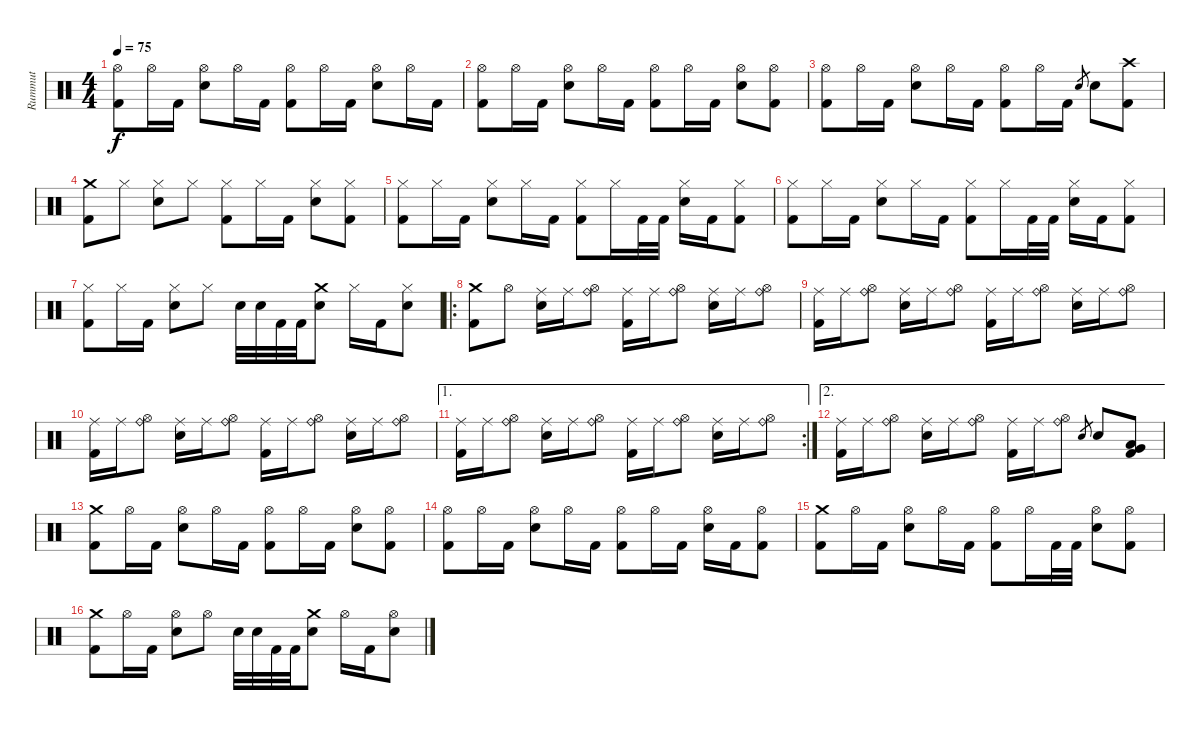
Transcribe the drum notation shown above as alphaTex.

\track ("Rummut" "Rummut") {instrument percussion}
\staff {score}
\articulation defaults
\ts (4 4)
\tempo 75
\clef neutral
\ks c
("Hi-Hat (open)" "Kick (hit) 2").8{dy f} "Hi-Hat (open)".16 "Kick (hit) 2".16 ("Hi-Hat (open)" "Snare (hit) 2").8 "Hi-Hat (open)".16 "Kick (hit) 2".16 ("Hi-Hat (open)" "Kick (hit) 2").8 "Hi-Hat (open)".16 "Kick (hit) 2".16 ("Hi-Hat (open)" "Snare (hit) 2").8 "Hi-Hat (open)".16 "Kick (hit) 2".16 |
("Hi-Hat (open)" "Kick (hit) 2").8 "Hi-Hat (open)".16 "Kick (hit) 2".16 ("Hi-Hat (open)" "Snare (hit) 2").8 "Hi-Hat (open)".16 "Kick (hit) 2".16 ("Hi-Hat (open)" "Kick (hit) 2").8 "Hi-Hat (open)".16 "Kick (hit) 2".16 ("Hi-Hat (open)" "Snare (hit) 2").8 ("Hi-Hat (open)" "Kick (hit) 2").8 |
("Hi-Hat (open)" "Kick (hit) 2").8 "Hi-Hat (open)".16 "Kick (hit) 2".16 ("Hi-Hat (open)" "Snare (hit) 2").8 "Hi-Hat (open)".16 "Kick (hit) 2".16 ("Hi-Hat (open)" "Kick (hit) 2").8 "Hi-Hat (open)".16 "Kick (hit) 2".16 "Snare (hit) 2".8{gr} "Snare (hit) 2".8 ("Crash high (hit)" "Kick (hit) 2").8 |
("Crash medium (hit)" "Kick (hit) 2").8 "Hi-Hat (closed)".8 ("Hi-Hat (closed)" "Snare (hit) 2").8 "Hi-Hat (closed)".8 ("Hi-Hat (closed)" "Kick (hit) 2").8 "Hi-Hat (closed)".16 "Kick (hit) 2".16 ("Hi-Hat (closed)" "Snare (hit) 2").8 ("Hi-Hat (closed)" "Kick (hit) 2").8 |
("Hi-Hat (closed)" "Kick (hit) 2").8 "Hi-Hat (closed)".16 "Kick (hit) 2".16 ("Hi-Hat (closed)" "Snare (hit) 2").8 "Hi-Hat (closed)".16 "Kick (hit) 2".16 ("Hi-Hat (closed)" "Kick (hit) 2").8 "Hi-Hat (closed)".16 "Kick (hit) 2".32 "Kick (hit) 2".32 ("Hi-Hat (closed)" "Snare (hit) 2").16 "Kick (hit) 2".16 ("Hi-Hat (closed)" "Kick (hit) 2").8 |
("Hi-Hat (closed)" "Kick (hit) 2").8 "Hi-Hat (closed)".16 "Kick (hit) 2".16 ("Hi-Hat (closed)" "Snare (hit) 2").8 "Hi-Hat (closed)".16 "Kick (hit) 2".16 ("Hi-Hat (closed)" "Kick (hit) 2").8 "Hi-Hat (closed)".16 "Kick (hit) 2".32 "Kick (hit) 2".32 ("Hi-Hat (closed)" "Snare (hit) 2").16 "Kick (hit) 2".16 ("Hi-Hat (closed)" "Kick (hit) 2").8 |
("Hi-Hat (closed)" "Kick (hit) 2").8 "Hi-Hat (closed)".16 "Kick (hit) 2".16 ("Hi-Hat (closed)" "Snare (hit) 2").8 "Hi-Hat (closed)".8 "Snare (hit) 2".32 "Snare (hit) 2".32 "Kick (hit) 2".32 "Kick (hit) 2".32 ("Crash medium (hit)" "Snare (hit) 2").8 "Hi-Hat (closed)".16 "Kick (hit) 2".16 ("Hi-Hat (closed)" "Snare (hit) 2").8 |
\ro
("Crash medium (hit)" "Kick (hit) 2").8 "Hi-Hat (open)".8 ("Ride (middle)" "Snare (hit) 2").16 "Ride (middle)".16 ("Hi-Hat (open)" "Ride (bell)").8 ("Ride (middle)" "Kick (hit) 2").16 "Ride (middle)".16 ("Hi-Hat (open)" "Ride (bell)").8 ("Ride (middle)" "Snare (hit) 2").16 "Ride (middle)".16 ("Hi-Hat (open)" "Ride (bell)").8 |
("Ride (middle)" "Kick (hit) 2").16 "Ride (middle)".16 ("Hi-Hat (open)" "Ride (bell)").8 ("Ride (middle)" "Snare (hit) 2").16 "Ride (middle)".16 ("Hi-Hat (open)" "Ride (bell)").8 ("Ride (middle)" "Kick (hit) 2").16 "Ride (middle)".16 ("Hi-Hat (open)" "Ride (bell)").8 ("Ride (middle)" "Snare (hit) 2").16 "Ride (middle)".16 ("Hi-Hat (open)" "Ride (bell)").8 |
("Ride (middle)" "Kick (hit) 2").16 "Ride (middle)".16 ("Hi-Hat (open)" "Ride (bell)").8 ("Ride (middle)" "Snare (hit) 2").16 "Ride (middle)".16 ("Hi-Hat (open)" "Ride (bell)").8 ("Ride (middle)" "Kick (hit) 2").16 "Ride (middle)".16 ("Hi-Hat (open)" "Ride (bell)").8 ("Ride (middle)" "Snare (hit) 2").16 "Ride (middle)".16 ("Hi-Hat (open)" "Ride (bell)").8 |
\ae 1
\rc 2
("Ride (middle)" "Kick (hit) 2").16 "Ride (middle)".16 ("Hi-Hat (open)" "Ride (bell)").8 ("Ride (middle)" "Snare (hit) 2").16 "Ride (middle)".16 ("Hi-Hat (open)" "Ride (bell)").8 ("Ride (middle)" "Kick (hit) 2").16 "Ride (middle)".16 ("Hi-Hat (open)" "Ride (bell)").8 ("Ride (middle)" "Snare (hit) 2").16 "Ride (middle)".16 ("Hi-Hat (open)" "Ride (bell)").8 |
\ae 2
("Ride (middle)" "Kick (hit) 2").16 "Ride (middle)".16 ("Hi-Hat (open)" "Ride (bell)").8 ("Ride (middle)" "Snare (hit) 2").16 "Ride (middle)".16 ("Hi-Hat (open)" "Ride (bell)").8 ("Ride (middle)" "Kick (hit) 2").16 "Ride (middle)".16 ("Hi-Hat (open)" "Ride (bell)").8 "Snare (hit) 2".8{gr} "Snare (hit) 2".8 ("Very Low Tom (hit)" "Low Floor Tom (hit)" "Kick (hit) 2").8 |
("Crash medium (hit)" "Kick (hit) 2").8 "Hi-Hat (open)".16 "Kick (hit) 2".16 ("Hi-Hat (open)" "Snare (hit) 2").8 "Hi-Hat (open)".16 "Kick (hit) 2".16 ("Hi-Hat (open)" "Kick (hit) 2").8 "Hi-Hat (open)".16 "Kick (hit) 2".16 ("Hi-Hat (open)" "Snare (hit) 2").8 ("Hi-Hat (open)" "Kick (hit) 2").8 |
("Hi-Hat (open)" "Kick (hit) 2").8 "Hi-Hat (open)".16 "Kick (hit) 2".16 ("Hi-Hat (open)" "Snare (hit) 2").8 "Hi-Hat (open)".16 "Kick (hit) 2".16 ("Hi-Hat (open)" "Kick (hit) 2").8 "Hi-Hat (open)".16 "Kick (hit) 2".16 ("Hi-Hat (open)" "Snare (hit) 2").16 "Kick (hit) 2".16 ("Hi-Hat (open)" "Kick (hit) 2").8 |
("Crash medium (hit)" "Kick (hit) 2").8 "Hi-Hat (open)".16 "Kick (hit) 2".16 ("Hi-Hat (open)" "Snare (hit) 2").8 "Hi-Hat (open)".16 "Kick (hit) 2".16 ("Hi-Hat (open)" "Kick (hit) 2").8 "Hi-Hat (open)".16 "Kick (hit) 2".32 "Kick (hit) 2".32 ("Hi-Hat (open)" "Snare (hit) 2").8 ("Hi-Hat (open)" "Kick (hit) 2").8 |
("Crash medium (hit)" "Kick (hit) 2").8 "Hi-Hat (open)".16 "Kick (hit) 2".16 ("Hi-Hat (open)" "Snare (hit) 2").8 "Hi-Hat (open)".8 "Snare (hit) 2".32 "Snare (hit) 2".32 "Kick (hit) 2".32 "Kick (hit) 2".32 ("Crash medium (hit)" "Snare (hit) 2").8 "Hi-Hat (open)".16 "Kick (hit) 2".16 ("Hi-Hat (open)" "Snare (hit) 2").8
